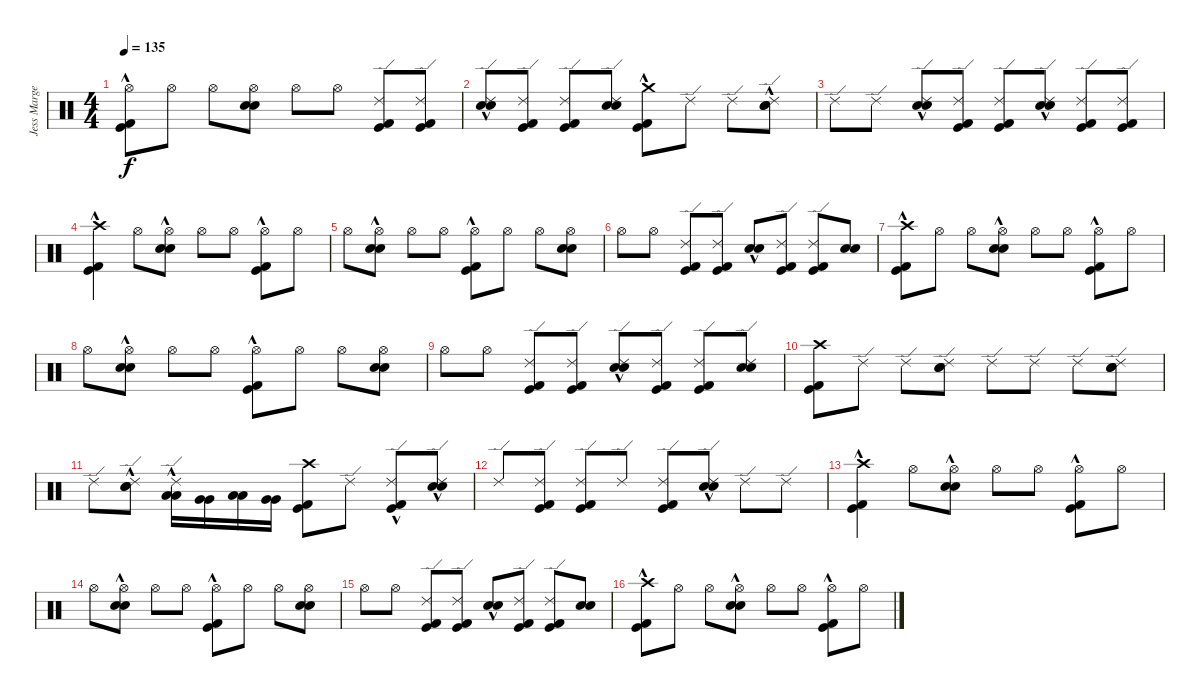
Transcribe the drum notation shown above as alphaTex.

\track ("Jess Margera" "Jess Marge") {instrument percussion}
\staff {score}
\articulation defaults
\ts (4 4)
\tempo 135
\clef neutral
\ks c
("Kick (hit)"{hac} "Kick (hit) 2"{hac} "Hi-Hat (open)").8{dy f} "Hi-Hat (open)".8 "Hi-Hat (open)".8 ("Electric Snare (hit)" "Electric Snare (hit)" "Hi-Hat (open)").8 "Hi-Hat (open)".8 "Hi-Hat (open)".8 ("Kick (hit)" "Kick (hit) 2" "Ride (edge) 2").8 ("Kick (hit)" "Kick (hit) 2" "Ride (edge) 2").8 |
("Electric Snare (hit)"{hac} "Electric Snare (hit)"{hac} "Ride (edge) 2").8 ("Kick (hit)" "Kick (hit) 2" "Ride (edge) 2").8 ("Kick (hit)" "Kick (hit) 2" "Ride (edge) 2").8 ("Electric Snare (hit)" "Electric Snare (hit)" "Ride (edge) 2").8 ("Kick (hit)"{hac} "Kick (hit) 2"{hac} "Crash medium (hit)").8 "Ride (edge) 2".8 "Ride (edge) 2".8 ("Electric Snare (hit)"{hac} "Electric Snare (hit)"{hac} "Ride (edge) 2").8 |
"Ride (edge) 2".8 "Ride (edge) 2".8 ("Electric Snare (hit)"{hac} "Electric Snare (hit)"{hac} "Ride (edge) 2").8 ("Kick (hit)" "Kick (hit) 2" "Ride (edge) 2").8 ("Kick (hit)" "Kick (hit) 2" "Ride (edge) 2").8 ("Electric Snare (hit)"{hac} "Electric Snare (hit)"{hac} "Ride (edge) 2").8 ("Kick (hit)" "Kick (hit) 2" "Ride (edge) 2").8 ("Kick (hit)" "Kick (hit) 2" "Ride (edge) 2").8 |
("Kick (hit)"{hac} "Kick (hit) 2"{hac} "Crash high (hit)").4 "Hi-Hat (open)".8 ("Electric Snare (hit)"{hac} "Electric Snare (hit)"{hac} "Hi-Hat (open)").8 "Hi-Hat (open)".8 "Hi-Hat (open)".8 ("Kick (hit)"{hac} "Kick (hit) 2"{hac} "Hi-Hat (open)").8 "Hi-Hat (open)".8 |
"Hi-Hat (open)".8 ("Electric Snare (hit)"{hac} "Electric Snare (hit)"{hac} "Hi-Hat (open)").8 "Hi-Hat (open)".8 "Hi-Hat (open)".8 ("Kick (hit)"{hac} "Kick (hit) 2"{hac} "Hi-Hat (open)").8 "Hi-Hat (open)".8 "Hi-Hat (open)".8 ("Electric Snare (hit)" "Electric Snare (hit)" "Hi-Hat (open)").8 |
"Hi-Hat (open)".8 "Hi-Hat (open)".8 ("Kick (hit)" "Kick (hit) 2" "Ride (edge) 2").8 ("Kick (hit)" "Kick (hit) 2" "Ride (edge) 2").8 ("Electric Snare (hit)"{hac} "Electric Snare (hit)"{hac}).8 ("Kick (hit)" "Kick (hit) 2" "Ride (edge) 2").8 ("Kick (hit)" "Kick (hit) 2" "Ride (edge) 2").8 ("Electric Snare (hit)" "Electric Snare (hit)").8 |
("Kick (hit)"{hac} "Kick (hit) 2"{hac} "Crash high (hit)").8 "Hi-Hat (open)".8 "Hi-Hat (open)".8 ("Electric Snare (hit)"{hac} "Electric Snare (hit)"{hac} "Hi-Hat (open)").8 "Hi-Hat (open)".8 "Hi-Hat (open)".8 ("Kick (hit)"{hac} "Kick (hit) 2"{hac} "Hi-Hat (open)").8 "Hi-Hat (open)".8 |
"Hi-Hat (open)".8 ("Electric Snare (hit)"{hac} "Electric Snare (hit)"{hac} "Hi-Hat (open)").8 "Hi-Hat (open)".8 "Hi-Hat (open)".8 ("Kick (hit)"{hac} "Kick (hit) 2"{hac} "Hi-Hat (open)").8 "Hi-Hat (open)".8 "Hi-Hat (open)".8 ("Electric Snare (hit)" "Electric Snare (hit)" "Hi-Hat (open)").8 |
"Hi-Hat (open)".8 "Hi-Hat (open)".8 ("Kick (hit)" "Kick (hit) 2" "Ride (edge) 2").8 ("Kick (hit)" "Kick (hit) 2" "Ride (edge) 2").8 ("Electric Snare (hit)"{hac} "Electric Snare (hit)"{hac} "Ride (edge) 2").8 ("Kick (hit)" "Kick (hit) 2" "Ride (edge) 2").8 ("Kick (hit)" "Kick (hit) 2" "Ride (edge) 2").8 ("Electric Snare (hit)" "Electric Snare (hit)" "Ride (edge) 2").8 |
("Kick (hit)" "Kick (hit) 2" "Crash high (hit)").8 "Ride (edge) 2".8 "Ride (edge) 2".8 ("Electric Snare (hit)" "Electric Snare (hit)" "Ride (edge) 2").8 "Ride (edge) 2".8 "Ride (edge) 2".8 "Ride (edge) 2".8 ("Electric Snare (hit)" "Electric Snare (hit)" "Ride (edge) 2").8 |
"Ride (edge) 2".8 ("Electric Snare (hit)"{hac} "Electric Snare (hit)"{hac} "Ride (edge) 2").8 ("Low Tom (hit)" "Low Tom (hit)" "Ride (edge) 2"{hac}).16 ("Very Low Tom (hit)" "Very Low Tom (hit)").16 ("Low Tom (hit)" "Low Tom (hit)").16 ("Very Low Tom (hit)" "Very Low Tom (hit)").16 ("Kick (hit)" "Kick (hit) 2" "Crash high (hit)").8 "Ride (edge) 2".8 ("Kick (hit)"{hac} "Kick (hit) 2"{hac} "Ride (edge) 2").8 ("Electric Snare (hit)"{hac} "Electric Snare (hit)"{hac} "Ride (edge) 2").8 |
"Ride (edge) 2".8 ("Kick (hit)" "Kick (hit) 2" "Ride (edge) 2").8 ("Kick (hit)" "Kick (hit) 2" "Ride (edge) 2").8 "Ride (edge) 2".8 ("Kick (hit)" "Kick (hit) 2" "Ride (edge) 2").8 ("Electric Snare (hit)"{hac} "Electric Snare (hit)"{hac} "Ride (edge) 2").8 "Ride (edge) 2".8 "Ride (edge) 2".8 |
("Kick (hit)"{hac} "Kick (hit) 2"{hac} "Crash high (hit)").4 "Hi-Hat (open)".8 ("Electric Snare (hit)"{hac} "Electric Snare (hit)"{hac} "Hi-Hat (open)").8 "Hi-Hat (open)".8 "Hi-Hat (open)".8 ("Kick (hit)"{hac} "Kick (hit) 2"{hac} "Hi-Hat (open)").8 "Hi-Hat (open)".8 |
"Hi-Hat (open)".8 ("Electric Snare (hit)"{hac} "Electric Snare (hit)"{hac} "Hi-Hat (open)").8 "Hi-Hat (open)".8 "Hi-Hat (open)".8 ("Kick (hit)"{hac} "Kick (hit) 2"{hac} "Hi-Hat (open)").8 "Hi-Hat (open)".8 "Hi-Hat (open)".8 ("Electric Snare (hit)" "Electric Snare (hit)" "Hi-Hat (open)").8 |
"Hi-Hat (open)".8 "Hi-Hat (open)".8 ("Kick (hit)" "Kick (hit) 2" "Ride (edge) 2").8 ("Kick (hit)" "Kick (hit) 2" "Ride (edge) 2").8 ("Electric Snare (hit)"{hac} "Electric Snare (hit)"{hac}).8 ("Kick (hit)" "Kick (hit) 2" "Ride (edge) 2").8 ("Kick (hit)" "Kick (hit) 2" "Ride (edge) 2").8 ("Electric Snare (hit)" "Electric Snare (hit)").8 |
("Kick (hit)"{hac} "Kick (hit) 2"{hac} "Crash high (hit)").8 "Hi-Hat (open)".8 "Hi-Hat (open)".8 ("Electric Snare (hit)"{hac} "Electric Snare (hit)"{hac} "Hi-Hat (open)").8 "Hi-Hat (open)".8 "Hi-Hat (open)".8 ("Kick (hit)"{hac} "Kick (hit) 2"{hac} "Hi-Hat (open)").8 "Hi-Hat (open)".8
